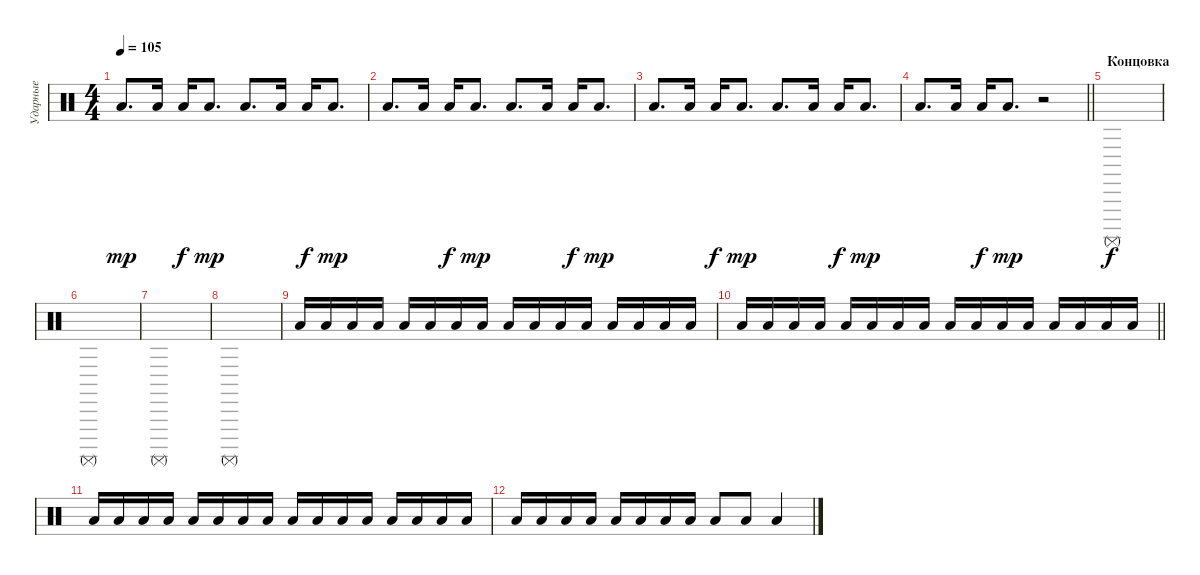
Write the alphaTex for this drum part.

\track ("Ударные" "Ударные") {instrument percussion}
\staff {score}
\articulation defaults
\ts (4 4)
\tempo 105
\clef neutral
\ks c "Low Tom (hit)".8{d dy mp} "Low Tom (hit)".16 "Low Tom (hit)".16{dy f} "Low Tom (hit)".8{d dy mp} "Low Tom (hit)".8{d} "Low Tom (hit)".16 "Low Tom (hit)".16{dy f} "Low Tom (hit)".8{d dy mp}
|
"Low Tom (hit)".8{d} "Low Tom (hit)".16 "Low Tom (hit)".16{dy f} "Low Tom (hit)".8{d dy mp} "Low Tom (hit)".8{d} "Low Tom (hit)".16 "Low Tom (hit)".16{dy f} "Low Tom (hit)".8{d dy mp} |
"Low Tom (hit)".8{d} "Low Tom (hit)".16 "Low Tom (hit)".16{dy f} "Low Tom (hit)".8{d dy mp} "Low Tom (hit)".8{d} "Low Tom (hit)".16 "Low Tom (hit)".16{dy f} "Low Tom (hit)".8{d dy mp} |
\barLineRight lightlight "Low Tom (hit)".8{d} "Low Tom (hit)".16 "Low Tom (hit)".16{dy f} "Low Tom (hit)".8{d dy mp}
r.2 |
\section ("" "Концовка")
"Surdo (mute)".1{dy f} |
"Surdo (mute)".1 |
"Surdo (mute)".1 |
"Surdo (mute)".1 |
"Low Tom (hit)".16 "Low Tom (hit)".16 "Low Tom (hit)".16 "Low Tom (hit)".16 "Low Tom (hit)".16 "Low Tom (hit)".16 "Low Tom (hit)".16 "Low Tom (hit)".16 "Low Tom (hit)".16 "Low Tom (hit)".16 "Low Tom (hit)".16 "Low Tom (hit)".16 "Low Tom (hit)".16 "Low Tom (hit)".16 "Low Tom (hit)".16 "Low Tom (hit)".16 |
\barLineRight lightlight "Low Tom (hit)".16 "Low Tom (hit)".16 "Low Tom (hit)".16 "Low Tom (hit)".16 "Low Tom (hit)".16 "Low Tom (hit)".16 "Low Tom (hit)".16 "Low Tom (hit)".16 "Low Tom (hit)".16 "Low Tom (hit)".16 "Low Tom (hit)".16 "Low Tom (hit)".16 "Low Tom (hit)".16 "Low Tom (hit)".16 "Low Tom (hit)".16 "Low Tom (hit)".16
|
"Low Tom (hit)".16 "Low Tom (hit)".16 "Low Tom (hit)".16 "Low Tom (hit)".16 "Low Tom (hit)".16 "Low Tom (hit)".16 "Low Tom (hit)".16 "Low Tom (hit)".16 "Low Tom (hit)".16 "Low Tom (hit)".16 "Low Tom (hit)".16 "Low Tom (hit)".16 "Low Tom (hit)".16 "Low Tom (hit)".16 "Low Tom (hit)".16 "Low Tom (hit)".16 |
"Low Tom (hit)".16 "Low Tom (hit)".16 "Low Tom (hit)".16 "Low Tom (hit)".16 "Low Tom (hit)".16 "Low Tom (hit)".16 "Low Tom (hit)".16 "Low Tom (hit)".16 "Low Tom (hit)".8 "Low Tom (hit)".8 "Low Tom (hit)".4
